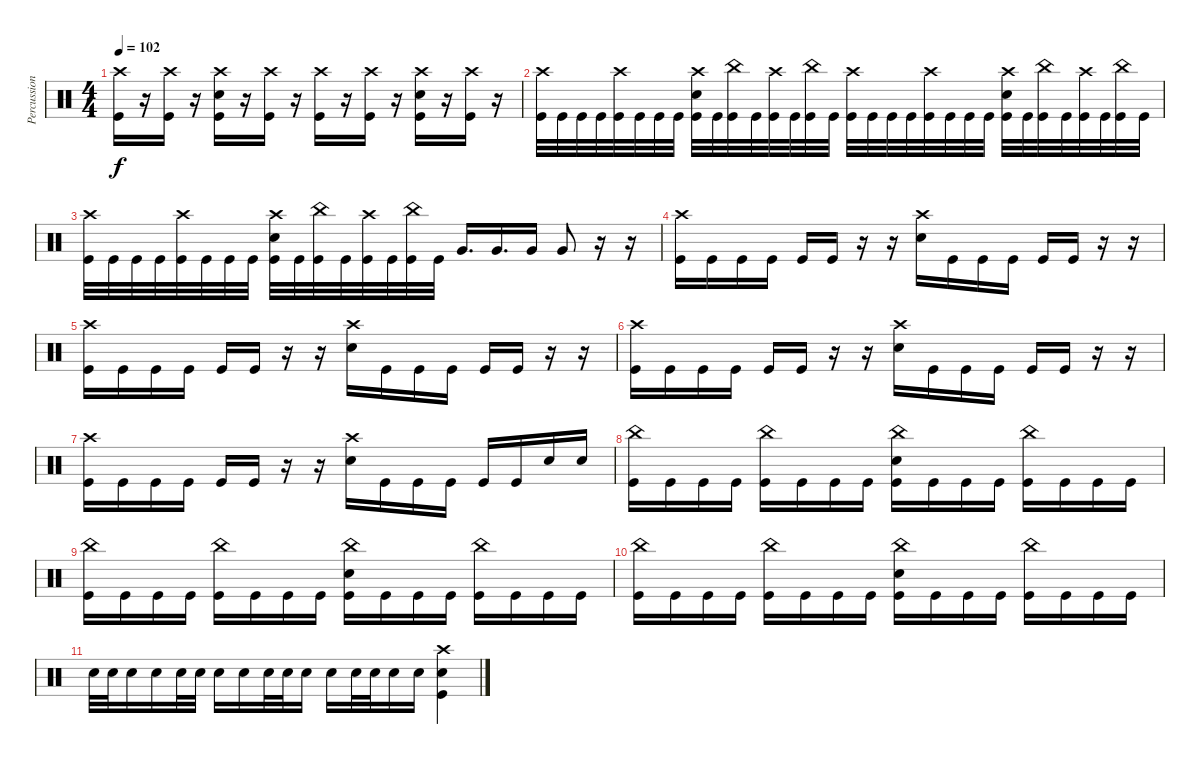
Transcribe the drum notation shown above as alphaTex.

\track ("Percussion" "Percussion") {instrument percussion}
\staff {score}
\articulation defaults
\ts (4 4)
\tempo 102
\clef neutral
\ks c
("Crash high (hit)" "Kick (hit)").16{dy f} r.16 ("Crash high (hit)" "Kick (hit)").16 r.16 ("Crash high (hit)" "Snare (hit) 2" "Kick (hit)").16 r.16 ("Crash high (hit)" "Kick (hit)").16 r.16 ("Crash high (hit)" "Kick (hit)").16 r.16 ("Crash high (hit)" "Kick (hit)").16 r.16 ("Crash high (hit)" "Snare (hit) 2" "Kick (hit)").16 r.16 ("Crash high (hit)" "Kick (hit)").16 r.16 |
("Crash high (hit)" "Kick (hit)").32 "Kick (hit)".32 "Kick (hit)".32 "Kick (hit)".32 ("Crash high (hit)" "Kick (hit)").32 "Kick (hit)".32 "Kick (hit)".32 "Kick (hit)".32 ("Crash high (hit)" "Snare (hit) 2" "Kick (hit)").32 "Kick (hit)".32 ("China (hit)" "Kick (hit)").32 "Kick (hit)".32 ("Crash high (hit)" "Kick (hit)").32 "Kick (hit)".32 ("China (hit)" "Kick (hit)").32 "Kick (hit)".32 ("Crash high (hit)" "Kick (hit)").32 "Kick (hit)".32 "Kick (hit)".32 "Kick (hit)".32 ("Crash high (hit)" "Kick (hit)").32 "Kick (hit)".32 "Kick (hit)".32 "Kick (hit)".32 ("Crash high (hit)" "Snare (hit) 2" "Kick (hit)").32 "Kick (hit)".32 ("China (hit)" "Kick (hit)").32 "Kick (hit)".32 ("Crash high (hit)" "Kick (hit)").32 "Kick (hit)".32 ("China (hit)" "Kick (hit)").32 "Kick (hit)".32 |
("Crash high (hit)" "Kick (hit)").32 "Kick (hit)".32 "Kick (hit)".32 "Kick (hit)".32 ("Crash high (hit)" "Kick (hit)").32 "Kick (hit)".32 "Kick (hit)".32 "Kick (hit)".32 ("Crash high (hit)" "Snare (hit) 2" "Kick (hit)").32 "Kick (hit)".32 ("China (hit)" "Kick (hit)").32 "Kick (hit)".32 ("Crash high (hit)" "Kick (hit)").32 "Kick (hit)".32 ("China (hit)" "Kick (hit)").32 "Kick (hit)".32 "Very Low Tom (hit)".16{d} "Very Low Tom (hit)".16{d} "Very Low Tom (hit)".16 "Very Low Tom (hit)".8 r.16 r.16 |
("Crash high (hit)" "Kick (hit)").16 "Kick (hit)".16 "Kick (hit)".16 "Kick (hit)".16 "Kick (hit)".16 "Kick (hit)".16 r.16 r.16 ("Crash high (hit)" "Snare (hit) 2").16 "Kick (hit)".16 "Kick (hit)".16 "Kick (hit)".16 "Kick (hit)".16 "Kick (hit)".16 r.16 r.16 |
("Crash high (hit)" "Kick (hit)").16 "Kick (hit)".16 "Kick (hit)".16 "Kick (hit)".16 "Kick (hit)".16 "Kick (hit)".16 r.16 r.16 ("Crash high (hit)" "Snare (hit) 2").16 "Kick (hit)".16 "Kick (hit)".16 "Kick (hit)".16 "Kick (hit)".16 "Kick (hit)".16 r.16 r.16 |
("Crash high (hit)" "Kick (hit)").16 "Kick (hit)".16 "Kick (hit)".16 "Kick (hit)".16 "Kick (hit)".16 "Kick (hit)".16 r.16 r.16 ("Crash high (hit)" "Snare (hit) 2").16 "Kick (hit)".16 "Kick (hit)".16 "Kick (hit)".16 "Kick (hit)".16 "Kick (hit)".16 r.16 r.16 |
("Crash high (hit)" "Kick (hit)").16 "Kick (hit)".16 "Kick (hit)".16 "Kick (hit)".16 "Kick (hit)".16 "Kick (hit)".16 r.16 r.16 ("Crash high (hit)" "Snare (hit) 2").16 "Kick (hit)".16 "Kick (hit)".16 "Kick (hit)".16 "Kick (hit)".16 "Kick (hit)".16 "Snare (hit) 2".16 "Snare (hit) 2".16 |
("China (hit)" "Kick (hit)").16 "Kick (hit)".16 "Kick (hit)".16 "Kick (hit)".16 ("China (hit)" "Kick (hit)").16 "Kick (hit)".16 "Kick (hit)".16 "Kick (hit)".16 ("China (hit)" "Snare (hit) 2" "Kick (hit)").16 "Kick (hit)".16 "Kick (hit)".16 "Kick (hit)".16 ("China (hit)" "Kick (hit)").16 "Kick (hit)".16 "Kick (hit)".16 "Kick (hit)".16 |
("China (hit)" "Kick (hit)").16 "Kick (hit)".16 "Kick (hit)".16 "Kick (hit)".16 ("China (hit)" "Kick (hit)").16 "Kick (hit)".16 "Kick (hit)".16 "Kick (hit)".16 ("China (hit)" "Snare (hit) 2" "Kick (hit)").16 "Kick (hit)".16 "Kick (hit)".16 "Kick (hit)".16 ("China (hit)" "Kick (hit)").16 "Kick (hit)".16 "Kick (hit)".16 "Kick (hit)".16 |
("China (hit)" "Kick (hit)").16 "Kick (hit)".16 "Kick (hit)".16 "Kick (hit)".16 ("China (hit)" "Kick (hit)").16 "Kick (hit)".16 "Kick (hit)".16 "Kick (hit)".16 ("China (hit)" "Snare (hit) 2" "Kick (hit)").16 "Kick (hit)".16 "Kick (hit)".16 "Kick (hit)".16 ("China (hit)" "Kick (hit)").16 "Kick (hit)".16 "Kick (hit)".16 "Kick (hit)".16 |
"Snare (hit) 2".32 "Snare (hit) 2".32 "Snare (hit) 2".16 "Snare (hit) 2".16 "Snare (hit) 2".32 "Snare (hit) 2".32 "Snare (hit) 2".16 "Snare (hit) 2".16 "Snare (hit) 2".32 "Snare (hit) 2".32 "Snare (hit) 2".16 "Snare (hit) 2".16 "Snare (hit) 2".32 "Snare (hit) 2".32 "Snare (hit) 2".16 "Snare (hit) 2".16 ("Snare (hit) 2" "Crash high (hit)" "Kick (hit)").4
